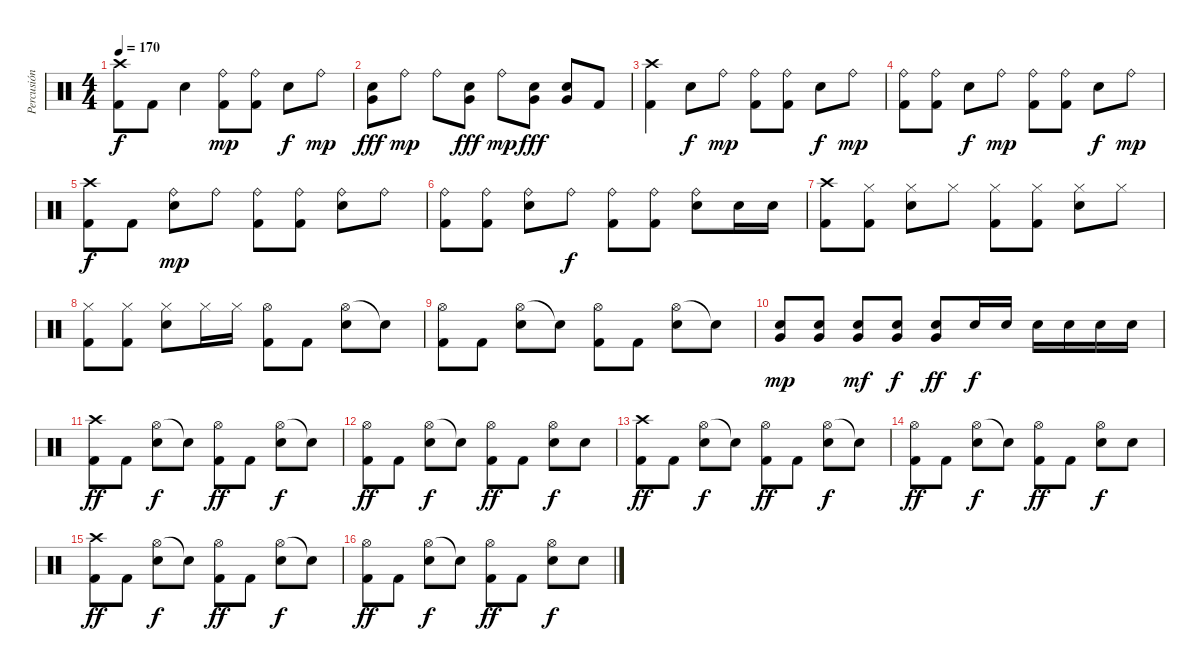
\track ("Percusión" "Percusión") {instrument percussion}
\staff {score}
\articulation defaults
\ts (4 4)
\tempo 170
\clef neutral
\ks c
("Crash high (hit)" "Kick (hit) 2").8{dy f} "Kick (hit) 2".8 "Snare (hit) 2".4 ("Ride (bell)" "Kick (hit) 2").8{dy mp} ("Ride (bell)" "Kick (hit) 2").8 "Snare (hit) 2".8{dy f} "Ride (bell)".8{dy mp} |
("Snare (hit) 2" "Very Low Tom (hit)").8{dy fff} "Ride (bell)".8{dy mp} "Ride (bell)".8 ("Snare (hit) 2" "Very Low Tom (hit)").8{dy fff} "Ride (bell)".8{dy mp} ("Snare (hit) 2" "Very Low Tom (hit)").8{dy fff} ("Snare (hit) 2" "Very Low Tom (hit)").8 "Kick (hit) 2".8 |
("Crash high (hit)" "Kick (hit) 2").4 "Snare (hit) 2".8{dy f} "Ride (bell)".8{dy mp} ("Ride (bell)" "Kick (hit) 2").8 ("Ride (bell)" "Kick (hit) 2").8 "Snare (hit) 2".8{dy f} "Ride (bell)".8{dy mp} |
("Ride (bell)" "Kick (hit) 2").8 ("Ride (bell)" "Kick (hit) 2").8 "Snare (hit) 2".8{dy f} "Ride (bell)".8{dy mp} ("Ride (bell)" "Kick (hit) 2").8 ("Ride (bell)" "Kick (hit) 2").8 "Snare (hit) 2".8{dy f} "Ride (bell)".8{dy mp} |
("Crash high (hit)" "Kick (hit) 2").8{dy f} "Kick (hit) 2".8 ("Ride (bell)" "Snare (hit) 2").8{dy mp} "Ride (bell)".8 ("Ride (bell)" "Kick (hit) 2").8 ("Ride (bell)" "Kick (hit) 2").8 ("Ride (bell)" "Snare (hit) 2").8 "Ride (bell)".8 |
("Ride (bell)" "Kick (hit) 2").8 ("Ride (bell)" "Kick (hit) 2").8 ("Ride (bell)" "Snare (hit) 2").8 "Ride (bell)".8{dy f} ("Ride (bell)" "Kick (hit) 2").8 ("Ride (bell)" "Kick (hit) 2").8 ("Ride (bell)" "Snare (hit) 2").8 "Snare (hit) 2".16 "Snare (hit) 2".16 |
("Crash high (hit)" "Kick (hit) 2").8 ("Hi-Hat (closed)" "Kick (hit) 2").8 ("Hi-Hat (closed)" "Snare (hit) 2").8 "Hi-Hat (closed)".8 ("Hi-Hat (closed)" "Kick (hit) 2").8 ("Hi-Hat (closed)" "Kick (hit) 2").8 ("Hi-Hat (closed)" "Snare (hit) 2").8 "Hi-Hat (closed)".8 |
("Hi-Hat (closed)" "Kick (hit) 2").8 ("Hi-Hat (closed)" "Kick (hit) 2").8 ("Hi-Hat (closed)" "Snare (hit) 2").8 "Hi-Hat (closed)".16 "Hi-Hat (closed)".16 ("Hi-Hat (open)" "Kick (hit) 2").8 "Kick (hit) 2".8 ("Hi-Hat (open)" "Snare (hit) 2").8 "Snare (hit)"{t}.8 |
("Hi-Hat (open)" "Kick (hit) 2").8 "Kick (hit) 2".8 ("Hi-Hat (open)" "Snare (hit) 2").8 "Snare (hit)"{t}.8 ("Hi-Hat (open)" "Kick (hit) 2").8 "Kick (hit) 2".8 ("Hi-Hat (open)" "Snare (hit) 2").8 "Snare (hit)"{t}.8 |
("Very Low Tom (hit)" "Electric Snare (hit)").8{dy mp} ("Very Low Tom (hit)" "Electric Snare (hit)").8 ("Very Low Tom (hit)" "Electric Snare (hit)").8{dy mf} ("Very Low Tom (hit)" "Electric Snare (hit)").8{dy f} ("Very Low Tom (hit)" "Electric Snare (hit)").8{dy ff} "Electric Snare (hit)".16{dy f} "Electric Snare (hit)".16 "Electric Snare (hit)".16 "Electric Snare (hit)".16 "Electric Snare (hit)".16 "Electric Snare (hit)".16 |
("Crash high (hit)" "Kick (hit) 2").8{dy ff} "Kick (hit) 2".8 ("Hi-Hat (open)" "Snare (hit) 2").8{dy f} "Snare (hit)"{t}.8 ("Hi-Hat (open)" "Kick (hit) 2").8{dy ff} "Kick (hit) 2".8 ("Hi-Hat (open)" "Snare (hit) 2").8{dy f} "Snare (hit)"{t}.8 |
("Hi-Hat (open)" "Kick (hit) 2").8{dy ff} "Kick (hit) 2".8 ("Hi-Hat (open)" "Snare (hit) 2").8{dy f} "Snare (hit)"{t}.8 ("Hi-Hat (open)" "Kick (hit) 2").8{dy ff} "Kick (hit) 2".8 ("Hi-Hat (open)" "Snare (hit) 2").8{dy f} "Snare (hit) 2".8 |
("Crash high (hit)" "Kick (hit) 2").8{dy ff} "Kick (hit) 2".8 ("Hi-Hat (open)" "Snare (hit) 2").8{dy f} "Snare (hit)"{t}.8 ("Hi-Hat (open)" "Kick (hit) 2").8{dy ff} "Kick (hit) 2".8 ("Hi-Hat (open)" "Snare (hit) 2").8{dy f} "Snare (hit)"{t}.8 |
("Hi-Hat (open)" "Kick (hit) 2").8{dy ff} "Kick (hit) 2".8 ("Hi-Hat (open)" "Snare (hit) 2").8{dy f} "Snare (hit)"{t}.8 ("Hi-Hat (open)" "Kick (hit) 2").8{dy ff} "Kick (hit) 2".8 ("Hi-Hat (open)" "Snare (hit) 2").8{dy f} "Snare (hit) 2".8 |
("Crash high (hit)" "Kick (hit) 2").8{dy ff} "Kick (hit) 2".8 ("Hi-Hat (open)" "Snare (hit) 2").8{dy f} "Snare (hit)"{t}.8 ("Hi-Hat (open)" "Kick (hit) 2").8{dy ff} "Kick (hit) 2".8 ("Hi-Hat (open)" "Snare (hit) 2").8{dy f} "Snare (hit)"{t}.8 |
("Hi-Hat (open)" "Kick (hit) 2").8{dy ff} "Kick (hit) 2".8 ("Hi-Hat (open)" "Snare (hit) 2").8{dy f} "Snare (hit)"{t}.8 ("Hi-Hat (open)" "Kick (hit) 2").8{dy ff} "Kick (hit) 2".8 ("Hi-Hat (open)" "Snare (hit) 2").8{dy f} "Snare (hit) 2".8
